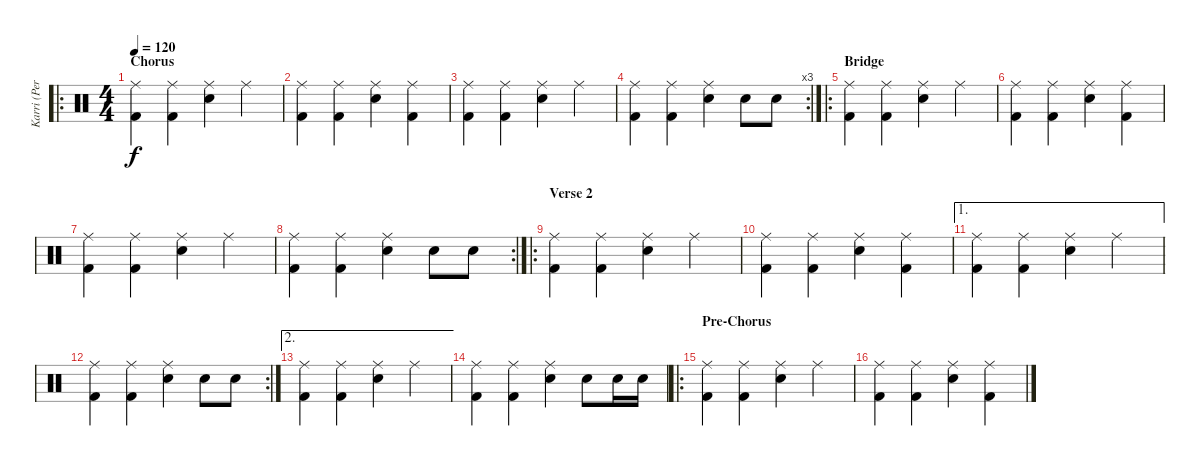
\track ("Karri (Percussion)" "Karri (Per") {instrument percussion}
\staff {score}
\articulation defaults
\ro
\ts (4 4)
\section ("" "Chorus")
\tempo 120
\clef neutral
\ks c
("Ride (middle)" "Kick (hit) 2").4{dy f} ("Ride (middle)" "Kick (hit) 2").4 ("Ride (middle)" "Snare (hit) 2").4 "Ride (middle)".4 |
("Ride (middle)" "Kick (hit) 2").4 ("Ride (middle)" "Kick (hit) 2").4 ("Ride (middle)" "Snare (hit) 2").4 ("Ride (middle)" "Kick (hit) 2").4 |
("Ride (middle)" "Kick (hit) 2").4 ("Ride (middle)" "Kick (hit) 2").4 ("Ride (middle)" "Snare (hit) 2").4 "Ride (middle)".4 |
\rc 3
("Ride (middle)" "Kick (hit) 2").4 ("Ride (middle)" "Kick (hit) 2").4 ("Ride (middle)" "Snare (hit) 2").4 "Snare (hit) 2".8 "Snare (hit) 2".8 |
\ro
\section ("" "Bridge")
("Ride (middle)" "Kick (hit) 2").4 ("Ride (middle)" "Kick (hit) 2").4 ("Ride (middle)" "Snare (hit) 2").4 "Ride (middle)".4 |
("Ride (middle)" "Kick (hit) 2").4 ("Ride (middle)" "Kick (hit) 2").4 ("Ride (middle)" "Snare (hit) 2").4 ("Ride (middle)" "Kick (hit) 2").4 |
("Ride (middle)" "Kick (hit) 2").4 ("Ride (middle)" "Kick (hit) 2").4 ("Ride (middle)" "Snare (hit) 2").4 "Ride (middle)".4 |
\rc 2
("Ride (middle)" "Kick (hit) 2").4 ("Ride (middle)" "Kick (hit) 2").4 ("Ride (middle)" "Snare (hit) 2").4 "Snare (hit) 2".8 "Snare (hit) 2".8 |
\ro
\section ("" "Verse 2")
("Ride (middle)" "Kick (hit) 2").4 ("Ride (middle)" "Kick (hit) 2").4 ("Ride (middle)" "Snare (hit) 2").4 "Ride (middle)".4 |
("Ride (middle)" "Kick (hit) 2").4 ("Ride (middle)" "Kick (hit) 2").4 ("Ride (middle)" "Snare (hit) 2").4 ("Ride (middle)" "Kick (hit) 2").4 |
\ae 1
("Ride (middle)" "Kick (hit) 2").4 ("Ride (middle)" "Kick (hit) 2").4 ("Ride (middle)" "Snare (hit) 2").4 "Ride (middle)".4 |
\rc 2
("Ride (middle)" "Kick (hit) 2").4 ("Ride (middle)" "Kick (hit) 2").4 ("Ride (middle)" "Snare (hit) 2").4 "Snare (hit) 2".8 "Snare (hit) 2".8 |
\ae 2
("Ride (middle)" "Kick (hit) 2").4 ("Ride (middle)" "Kick (hit) 2").4 ("Ride (middle)" "Snare (hit) 2").4 "Ride (middle)".4 |
("Ride (middle)" "Kick (hit) 2").4 ("Ride (middle)" "Kick (hit) 2").4 ("Ride (middle)" "Snare (hit) 2").4 "Snare (hit) 2".8 "Snare (hit) 2".16 "Snare (hit) 2".16 |
\ro
\section ("" "Pre-Chorus")
("Ride (middle)" "Kick (hit) 2").4 ("Ride (middle)" "Kick (hit) 2").4 ("Ride (middle)" "Snare (hit) 2").4 "Ride (middle)".4 |
("Ride (middle)" "Kick (hit) 2").4 ("Ride (middle)" "Kick (hit) 2").4 ("Ride (middle)" "Snare (hit) 2").4 ("Ride (middle)" "Kick (hit) 2").4
